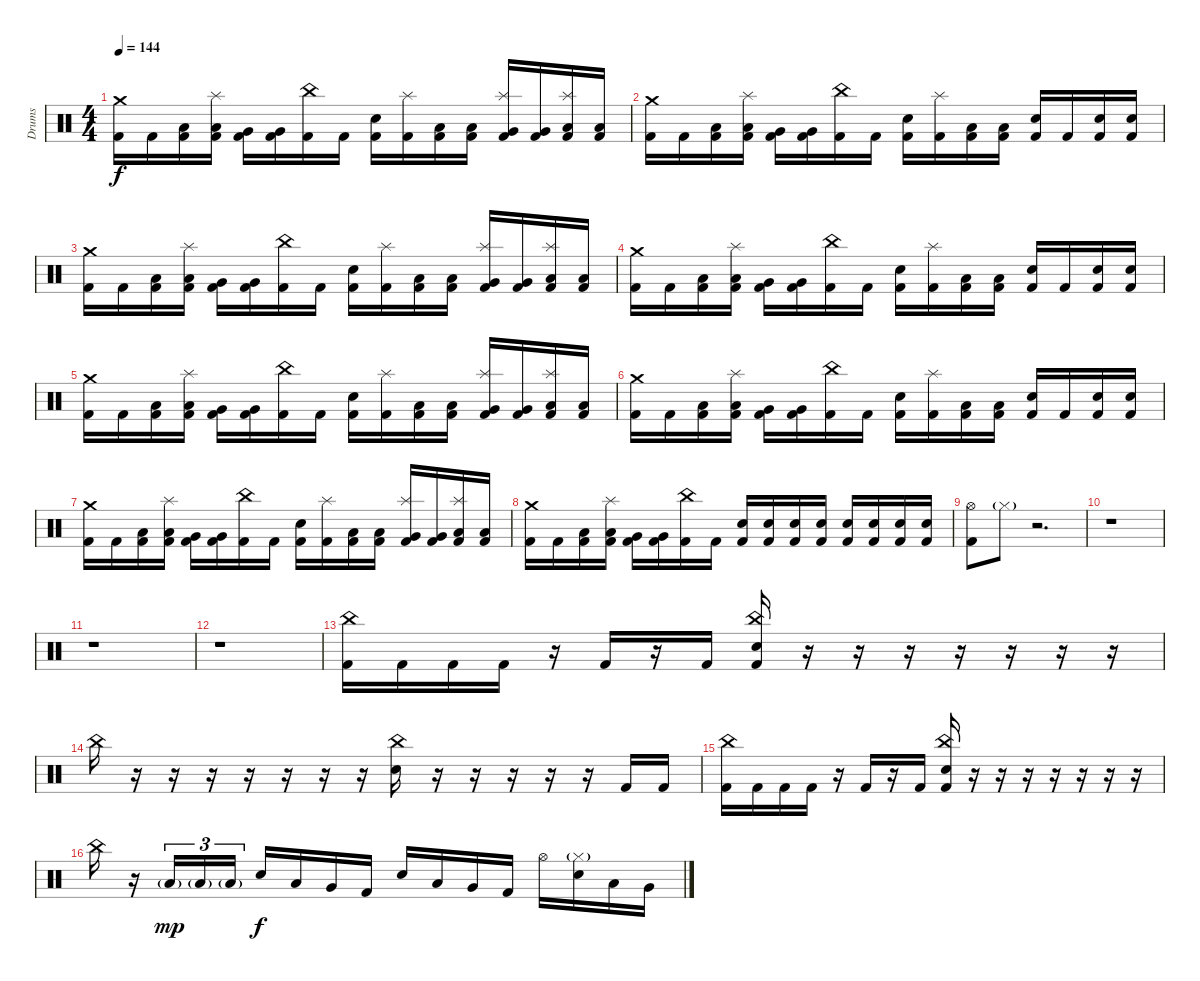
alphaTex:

\track ("Drums" "Drums") {instrument percussion}
\staff {score}
\articulation defaults
\ts (4 4)
\tempo 144
\clef neutral
\ks c
("Crash medium (hit)" "Kick (hit) 2").16{dy f} "Kick (hit) 2".16 ("Low Tom (hit)" "Kick (hit) 2").16 ("Splash (hit)" "Low Tom (hit)" "Kick (hit) 2").16 ("Very Low Tom (hit)" "Kick (hit) 2").16 ("Very Low Tom (hit)" "Kick (hit) 2").16 ("China (hit)" "Kick (hit) 2").16 "Kick (hit) 2".16 ("Electric Snare (hit)" "Kick (hit) 2").16 ("Splash (hit)" "Kick (hit) 2").16 ("Low Tom (hit)" "Kick (hit) 2").16 ("Low Tom (hit)" "Kick (hit) 2").16 ("Splash (hit)" "Very Low Tom (hit)" "Kick (hit) 2").16 ("Very Low Tom (hit)" "Kick (hit) 2").16 ("Splash (hit)" "Low Floor Tom (hit)" "Kick (hit) 2").16 ("Low Floor Tom (hit)" "Kick (hit) 2").16 |
("Crash medium (hit)" "Kick (hit) 2").16 "Kick (hit) 2".16 ("Low Tom (hit)" "Kick (hit) 2").16 ("Splash (hit)" "Low Tom (hit)" "Kick (hit) 2").16 ("Very Low Tom (hit)" "Kick (hit) 2").16 ("Very Low Tom (hit)" "Kick (hit) 2").16 ("China (hit)" "Kick (hit) 2").16 "Kick (hit) 2".16 ("Electric Snare (hit)" "Kick (hit) 2").16 ("Splash (hit)" "Kick (hit) 2").16 ("Low Tom (hit)" "Kick (hit) 2").16 ("Low Tom (hit)" "Kick (hit) 2").16 ("Electric Snare (hit)" "Kick (hit) 2").16 "Kick (hit) 2".16 ("Electric Snare (hit)" "Kick (hit) 2").16 ("Electric Snare (hit)" "Kick (hit) 2").16 |
("Crash medium (hit)" "Kick (hit) 2").16 "Kick (hit) 2".16 ("Low Tom (hit)" "Kick (hit) 2").16 ("Splash (hit)" "Low Tom (hit)" "Kick (hit) 2").16 ("Very Low Tom (hit)" "Kick (hit) 2").16 ("Very Low Tom (hit)" "Kick (hit) 2").16 ("China (hit)" "Kick (hit) 2").16 "Kick (hit) 2".16 ("Electric Snare (hit)" "Kick (hit) 2").16 ("Splash (hit)" "Kick (hit) 2").16 ("Low Tom (hit)" "Kick (hit) 2").16 ("Low Tom (hit)" "Kick (hit) 2").16 ("Splash (hit)" "Very Low Tom (hit)" "Kick (hit) 2").16 ("Very Low Tom (hit)" "Kick (hit) 2").16 ("Splash (hit)" "Low Floor Tom (hit)" "Kick (hit) 2").16 ("Low Floor Tom (hit)" "Kick (hit) 2").16 |
("Crash medium (hit)" "Kick (hit) 2").16 "Kick (hit) 2".16 ("Low Tom (hit)" "Kick (hit) 2").16 ("Splash (hit)" "Low Tom (hit)" "Kick (hit) 2").16 ("Very Low Tom (hit)" "Kick (hit) 2").16 ("Very Low Tom (hit)" "Kick (hit) 2").16 ("China (hit)" "Kick (hit) 2").16 "Kick (hit) 2".16 ("Electric Snare (hit)" "Kick (hit) 2").16 ("Splash (hit)" "Kick (hit) 2").16 ("Low Tom (hit)" "Kick (hit) 2").16 ("Low Tom (hit)" "Kick (hit) 2").16 ("Electric Snare (hit)" "Kick (hit) 2").16 "Kick (hit) 2".16 ("Electric Snare (hit)" "Kick (hit) 2").16 ("Electric Snare (hit)" "Kick (hit) 2").16 |
("Crash medium (hit)" "Kick (hit) 2").16 "Kick (hit) 2".16 ("Low Tom (hit)" "Kick (hit) 2").16 ("Splash (hit)" "Low Tom (hit)" "Kick (hit) 2").16 ("Very Low Tom (hit)" "Kick (hit) 2").16 ("Very Low Tom (hit)" "Kick (hit) 2").16 ("China (hit)" "Kick (hit) 2").16 "Kick (hit) 2".16 ("Electric Snare (hit)" "Kick (hit) 2").16 ("Splash (hit)" "Kick (hit) 2").16 ("Low Tom (hit)" "Kick (hit) 2").16 ("Low Tom (hit)" "Kick (hit) 2").16 ("Splash (hit)" "Very Low Tom (hit)" "Kick (hit) 2").16 ("Very Low Tom (hit)" "Kick (hit) 2").16 ("Splash (hit)" "Low Floor Tom (hit)" "Kick (hit) 2").16 ("Low Floor Tom (hit)" "Kick (hit) 2").16 |
("Crash medium (hit)" "Kick (hit) 2").16 "Kick (hit) 2".16 ("Low Tom (hit)" "Kick (hit) 2").16 ("Splash (hit)" "Low Tom (hit)" "Kick (hit) 2").16 ("Very Low Tom (hit)" "Kick (hit) 2").16 ("Very Low Tom (hit)" "Kick (hit) 2").16 ("China (hit)" "Kick (hit) 2").16 "Kick (hit) 2".16 ("Electric Snare (hit)" "Kick (hit) 2").16 ("Splash (hit)" "Kick (hit) 2").16 ("Low Tom (hit)" "Kick (hit) 2").16 ("Low Tom (hit)" "Kick (hit) 2").16 ("Electric Snare (hit)" "Kick (hit) 2").16 "Kick (hit) 2".16 ("Electric Snare (hit)" "Kick (hit) 2").16 ("Electric Snare (hit)" "Kick (hit) 2").16 |
("Crash medium (hit)" "Kick (hit) 2").16 "Kick (hit) 2".16 ("Low Tom (hit)" "Kick (hit) 2").16 ("Splash (hit)" "Low Tom (hit)" "Kick (hit) 2").16 ("Very Low Tom (hit)" "Kick (hit) 2").16 ("Very Low Tom (hit)" "Kick (hit) 2").16 ("China (hit)" "Kick (hit) 2").16 "Kick (hit) 2".16 ("Electric Snare (hit)" "Kick (hit) 2").16 ("Splash (hit)" "Kick (hit) 2").16 ("Low Tom (hit)" "Kick (hit) 2").16 ("Low Tom (hit)" "Kick (hit) 2").16 ("Splash (hit)" "Very Low Tom (hit)" "Kick (hit) 2").16 ("Very Low Tom (hit)" "Kick (hit) 2").16 ("Splash (hit)" "Low Floor Tom (hit)" "Kick (hit) 2").16 ("Low Floor Tom (hit)" "Kick (hit) 2").16 |
("Crash medium (hit)" "Kick (hit) 2").16 "Kick (hit) 2".16 ("Low Tom (hit)" "Kick (hit) 2").16 ("Splash (hit)" "Low Tom (hit)" "Kick (hit) 2").16 ("Very Low Tom (hit)" "Kick (hit) 2").16 ("Very Low Tom (hit)" "Kick (hit) 2").16 ("China (hit)" "Kick (hit) 2").16 "Kick (hit) 2".16 ("Electric Snare (hit)" "Kick (hit) 2").16 ("Electric Snare (hit)" "Kick (hit) 2").16 ("Electric Snare (hit)" "Kick (hit) 2").16 ("Electric Snare (hit)" "Kick (hit) 2").16 ("Electric Snare (hit)" "Kick (hit) 2").16 ("Electric Snare (hit)" "Kick (hit) 2").16 ("Electric Snare (hit)" "Kick (hit) 2").16 ("Electric Snare (hit)" "Kick (hit) 2").16 |
("Hi-Hat (open)" "Kick (hit) 2").8 "Hi-Hat (closed)"{g}.8 r.2{d} |
r.1 |
r.1 |
r.1 |
("China (hit)" "Kick (hit) 2").16 "Kick (hit) 2".16 "Kick (hit) 2".16 "Kick (hit) 2".16 r.16 "Kick (hit) 2".16 r.16 "Kick (hit) 2".16 ("China (hit)" "Electric Snare (hit)" "Kick (hit) 2").16 r.16 r.16 r.16 r.16 r.16 r.16 r.16 |
"China (hit)".16 r.16 r.16 r.16 r.16 r.16 r.16 r.16 ("China (hit)" "Electric Snare (hit)").16 r.16 r.16 r.16 r.16 r.16 "Kick (hit) 2".16 "Kick (hit) 2".16 |
("China (hit)" "Kick (hit) 2").16 "Kick (hit) 2".16 "Kick (hit) 2".16 "Kick (hit) 2".16 r.16 "Kick (hit) 2".16 r.16 "Kick (hit) 2".16 ("China (hit)" "Electric Snare (hit)" "Kick (hit) 2").16 r.16 r.16 r.16 r.16 r.16 r.16 r.16 |
"China (hit)".16 r.16 "Low Tom (hit)"{g}.16{tu (3 2) dy mp} "Low Tom (hit)"{g}.16{tu (3 2)} "Low Tom (hit)"{g}.16{tu (3 2)} "Electric Snare (hit)".16{dy f} "Low Tom (hit)".16 "Very Low Tom (hit)".16 "Kick (hit) 2".16 "Electric Snare (hit)".16 "Low Tom (hit)".16 "Very Low Tom (hit)".16 "Kick (hit) 2".16 "Hi-Hat (open)".16 ("Hi-Hat (closed)"{g} "Electric Snare (hit)").16 "Low Tom (hit)".16 "Very Low Tom (hit)".16
